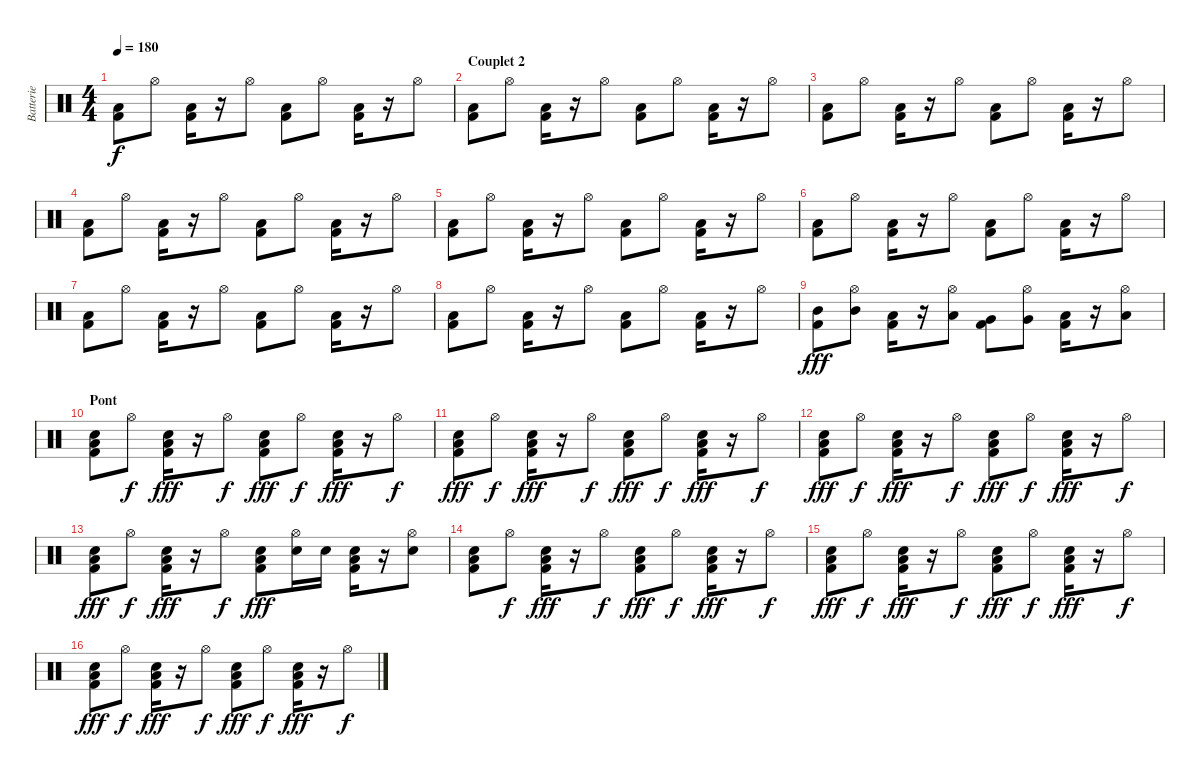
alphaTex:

\track ("Batterie" "Batterie") {instrument percussion}
\staff {score}
\articulation defaults
\ts (4 4)
\tempo 180
\clef neutral
\ks c
("Kick (hit) 2" "Low Floor Tom (hit)").8{dy f} "Hi-Hat (open)".8 ("Kick (hit) 2" "Low Floor Tom (hit)").16 r.16 "Hi-Hat (open)".8 ("Kick (hit) 2" "Low Floor Tom (hit)").8 "Hi-Hat (open)".8 ("Kick (hit) 2" "Low Floor Tom (hit)").16 r.16 "Hi-Hat (open)".8 |
\section ("" "Couplet 2")
("Kick (hit) 2" "Low Floor Tom (hit)").8 "Hi-Hat (open)".8 ("Kick (hit) 2" "Low Floor Tom (hit)").16 r.16 "Hi-Hat (open)".8 ("Kick (hit) 2" "Low Floor Tom (hit)").8 "Hi-Hat (open)".8 ("Kick (hit) 2" "Low Floor Tom (hit)").16 r.16 "Hi-Hat (open)".8 |
("Kick (hit) 2" "Low Floor Tom (hit)").8 "Hi-Hat (open)".8 ("Kick (hit) 2" "Low Floor Tom (hit)").16 r.16 "Hi-Hat (open)".8 ("Kick (hit) 2" "Low Floor Tom (hit)").8 "Hi-Hat (open)".8 ("Kick (hit) 2" "Low Floor Tom (hit)").16 r.16 "Hi-Hat (open)".8 |
("Kick (hit) 2" "Low Floor Tom (hit)").8 "Hi-Hat (open)".8 ("Kick (hit) 2" "Low Floor Tom (hit)").16 r.16 "Hi-Hat (open)".8 ("Kick (hit) 2" "Low Floor Tom (hit)").8 "Hi-Hat (open)".8 ("Kick (hit) 2" "Low Floor Tom (hit)").16 r.16 "Hi-Hat (open)".8 |
("Kick (hit) 2" "Low Floor Tom (hit)").8 "Hi-Hat (open)".8 ("Kick (hit) 2" "Low Floor Tom (hit)").16 r.16 "Hi-Hat (open)".8 ("Kick (hit) 2" "Low Floor Tom (hit)").8 "Hi-Hat (open)".8 ("Kick (hit) 2" "Low Floor Tom (hit)").16 r.16 "Hi-Hat (open)".8 |
("Kick (hit) 2" "Low Floor Tom (hit)").8 "Hi-Hat (open)".8 ("Kick (hit) 2" "Low Floor Tom (hit)").16 r.16 "Hi-Hat (open)".8 ("Kick (hit) 2" "Low Floor Tom (hit)").8 "Hi-Hat (open)".8 ("Kick (hit) 2" "Low Floor Tom (hit)").16 r.16 "Hi-Hat (open)".8 |
("Kick (hit) 2" "Low Floor Tom (hit)").8 "Hi-Hat (open)".8 ("Kick (hit) 2" "Low Floor Tom (hit)").16 r.16 "Hi-Hat (open)".8 ("Kick (hit) 2" "Low Floor Tom (hit)").8 "Hi-Hat (open)".8 ("Kick (hit) 2" "Low Floor Tom (hit)").16 r.16 "Hi-Hat (open)".8 |
("Kick (hit) 2" "Low Floor Tom (hit)").8 "Hi-Hat (open)".8 ("Kick (hit) 2" "Low Floor Tom (hit)").16 r.16 "Hi-Hat (open)".8 ("Kick (hit) 2" "Low Floor Tom (hit)").8 "Hi-Hat (open)".8 ("Kick (hit) 2" "Low Floor Tom (hit)").16 r.16 "Hi-Hat (open)".8 |
("Kick (hit) 2" "Mid Tom (hit)").8{dy fff volume 12} ("Hi-Hat (open)" "Mid Tom (hit)").8 ("Kick (hit) 2" "Low Tom (hit)").16 r.16 ("Hi-Hat (open)" "Low Tom (hit)").8 ("Kick (hit) 2" "Very Low Tom (hit)").8 ("Hi-Hat (open)" "Very Low Tom (hit)").8 ("Kick (hit) 2" "Low Floor Tom (hit)").16 r.16 ("Hi-Hat (open)" "Low Floor Tom (hit)").8 |
\section ("" "Pont")
("Kick (hit) 2" "Low Floor Tom (hit)" "Electric Snare (hit)").8{volume 13} "Hi-Hat (open)".8{dy f} ("Kick (hit) 2" "Low Floor Tom (hit)" "Electric Snare (hit)").16{dy fff} r.16 "Hi-Hat (open)".8{dy f} ("Kick (hit) 2" "Low Floor Tom (hit)" "Electric Snare (hit)").8{dy fff} "Hi-Hat (open)".8{dy f} ("Kick (hit) 2" "Low Floor Tom (hit)" "Electric Snare (hit)").16{dy fff} r.16 "Hi-Hat (open)".8{dy f} |
("Kick (hit) 2" "Low Floor Tom (hit)" "Electric Snare (hit)").8{dy fff} "Hi-Hat (open)".8{dy f} ("Kick (hit) 2" "Low Floor Tom (hit)" "Electric Snare (hit)").16{dy fff} r.16 "Hi-Hat (open)".8{dy f} ("Kick (hit) 2" "Low Floor Tom (hit)" "Electric Snare (hit)").8{dy fff} "Hi-Hat (open)".8{dy f} ("Kick (hit) 2" "Low Floor Tom (hit)" "Electric Snare (hit)").16{dy fff} r.16 "Hi-Hat (open)".8{dy f} |
("Kick (hit) 2" "Low Floor Tom (hit)" "Electric Snare (hit)").8{dy fff} "Hi-Hat (open)".8{dy f} ("Kick (hit) 2" "Low Floor Tom (hit)" "Electric Snare (hit)").16{dy fff} r.16 "Hi-Hat (open)".8{dy f} ("Kick (hit) 2" "Low Floor Tom (hit)" "Electric Snare (hit)").8{dy fff} "Hi-Hat (open)".8{dy f} ("Kick (hit) 2" "Low Floor Tom (hit)" "Electric Snare (hit)").16{dy fff} r.16 "Hi-Hat (open)".8{dy f} |
("Kick (hit) 2" "Low Floor Tom (hit)" "Electric Snare (hit)").8{dy fff} "Hi-Hat (open)".8{dy f} ("Kick (hit) 2" "Low Floor Tom (hit)" "Electric Snare (hit)").16{dy fff} r.16 "Hi-Hat (open)".8{dy f} ("Kick (hit) 2" "Low Floor Tom (hit)" "Electric Snare (hit)").8{dy fff} ("Hi-Hat (open)" "Electric Snare (hit)").16 "Electric Snare (hit)".16 ("Kick (hit) 2" "Low Floor Tom (hit)" "Electric Snare (hit)").16 r.16 ("Hi-Hat (open)" "Electric Snare (hit)").8 |
("Kick (hit) 2" "Low Floor Tom (hit)" "Electric Snare (hit)").8{volume 13} "Hi-Hat (open)".8{dy f} ("Kick (hit) 2" "Low Floor Tom (hit)" "Electric Snare (hit)").16{dy fff} r.16 "Hi-Hat (open)".8{dy f} ("Kick (hit) 2" "Low Floor Tom (hit)" "Electric Snare (hit)").8{dy fff} "Hi-Hat (open)".8{dy f} ("Kick (hit) 2" "Low Floor Tom (hit)" "Electric Snare (hit)").16{dy fff} r.16 "Hi-Hat (open)".8{dy f} |
("Kick (hit) 2" "Low Floor Tom (hit)" "Electric Snare (hit)").8{dy fff} "Hi-Hat (open)".8{dy f} ("Kick (hit) 2" "Low Floor Tom (hit)" "Electric Snare (hit)").16{dy fff} r.16 "Hi-Hat (open)".8{dy f} ("Kick (hit) 2" "Low Floor Tom (hit)" "Electric Snare (hit)").8{dy fff} "Hi-Hat (open)".8{dy f} ("Kick (hit) 2" "Low Floor Tom (hit)" "Electric Snare (hit)").16{dy fff} r.16 "Hi-Hat (open)".8{dy f} |
("Kick (hit) 2" "Low Floor Tom (hit)" "Electric Snare (hit)").8{dy fff} "Hi-Hat (open)".8{dy f} ("Kick (hit) 2" "Low Floor Tom (hit)" "Electric Snare (hit)").16{dy fff} r.16 "Hi-Hat (open)".8{dy f} ("Kick (hit) 2" "Low Floor Tom (hit)" "Electric Snare (hit)").8{dy fff} "Hi-Hat (open)".8{dy f} ("Kick (hit) 2" "Low Floor Tom (hit)" "Electric Snare (hit)").16{dy fff} r.16 "Hi-Hat (open)".8{dy f}
